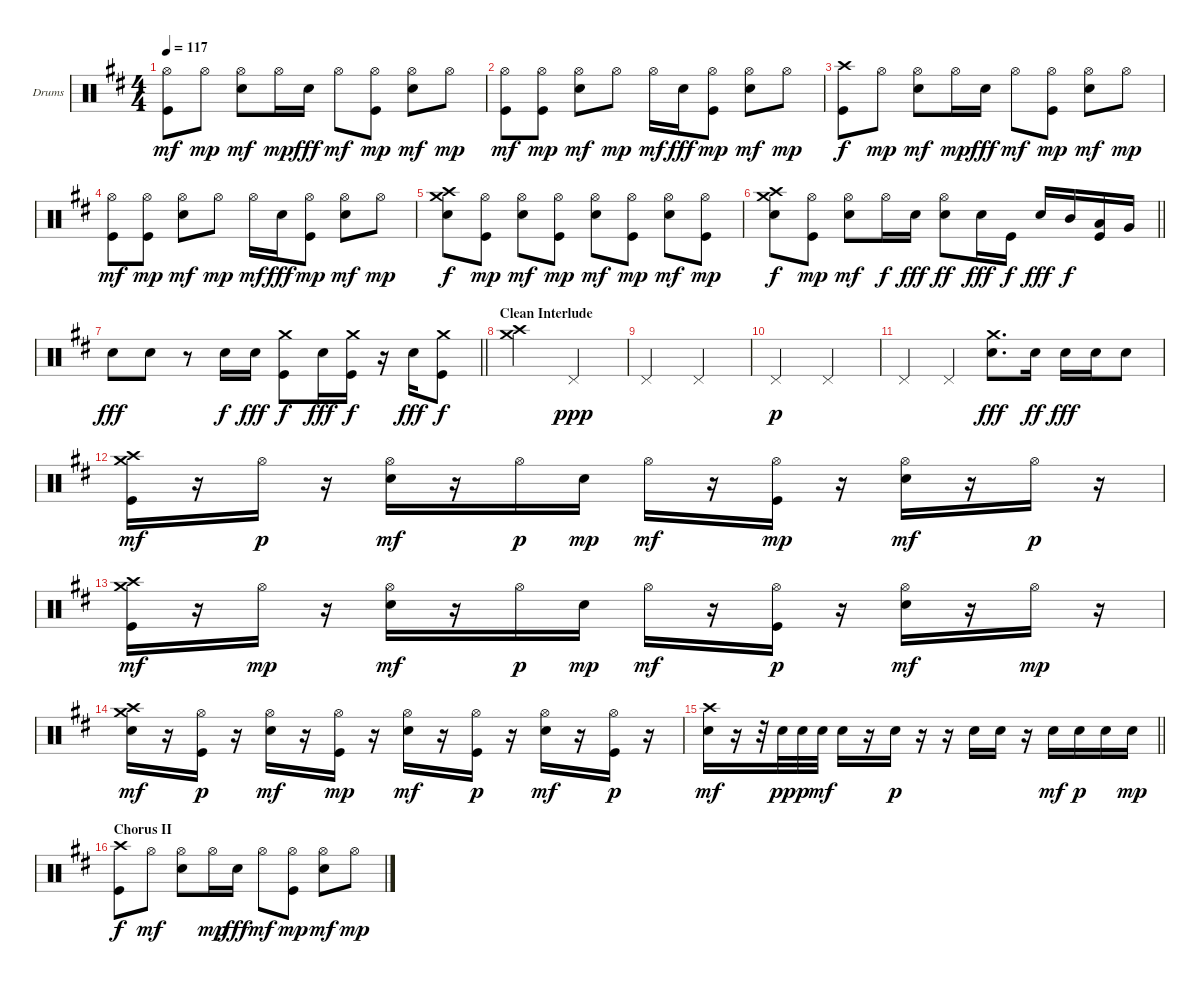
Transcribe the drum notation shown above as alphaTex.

\bracketExtendMode groupsimilarinstruments
\firstSystemTrackNameOrientation horizontal
\otherSystemsTrackNameOrientation horizontal
\track ("Drumkit" "Drums") {instrument percussion}
\staff {score}
\articulation defaults
\ts (4 4)
\tempo 117
\clef neutral
\ks d
("Hi-Hat (open)" "Kick (hit)").8{dy mf} "Hi-Hat (open)".8{dy mp} ("Hi-Hat (open)" "Snare (hit) 2").8{dy mf} "Hi-Hat (open)".16{dy mp} "Snare (hit) 2".16{dy fff} "Hi-Hat (open)".8{dy mf} ("Hi-Hat (open)" "Kick (hit)").8{dy mp} ("Hi-Hat (open)" "Snare (hit) 2").8{dy mf} "Hi-Hat (open)".8{dy mp} |
("Hi-Hat (open)" "Kick (hit)").8{dy mf} ("Hi-Hat (open)" "Kick (hit)").8{dy mp} ("Hi-Hat (open)" "Snare (hit) 2").8{dy mf} "Hi-Hat (open)".8{dy mp} "Hi-Hat (open)".16{dy mf} "Snare (hit) 2".16{dy fff} ("Hi-Hat (open)" "Kick (hit)").8{dy mp} ("Hi-Hat (open)" "Snare (hit) 2").8{dy mf} "Hi-Hat (open)".8{dy mp} |
("Crash high (hit)" "Kick (hit)").8{dy f} "Hi-Hat (open)".8{dy mp} ("Hi-Hat (open)" "Snare (hit) 2").8{dy mf} "Hi-Hat (open)".16{dy mp} "Snare (hit) 2".16{dy fff} "Hi-Hat (open)".8{dy mf} ("Hi-Hat (open)" "Kick (hit)").8{dy mp} ("Hi-Hat (open)" "Snare (hit) 2").8{dy mf} "Hi-Hat (open)".8{dy mp} |
("Hi-Hat (open)" "Kick (hit)").8{dy mf} ("Hi-Hat (open)" "Kick (hit)").8{dy mp} ("Hi-Hat (open)" "Snare (hit) 2").8{dy mf} "Hi-Hat (open)".8{dy mp} "Hi-Hat (open)".16{dy mf} "Snare (hit) 2".16{dy fff} ("Hi-Hat (open)" "Kick (hit)").8{dy mp} ("Hi-Hat (open)" "Snare (hit) 2").8{dy mf} "Hi-Hat (open)".8{dy mp} |
("Crash medium (hit)" "Crash high (hit)" "Snare (hit) 2").8{dy f} ("Hi-Hat (open)" "Kick (hit)").8{dy mp} ("Hi-Hat (open)" "Snare (hit) 2").8{dy mf} ("Hi-Hat (open)" "Kick (hit)").8{dy mp} ("Hi-Hat (open)" "Snare (hit) 2").8{dy mf} ("Hi-Hat (open)" "Kick (hit)").8{dy mp} ("Hi-Hat (open)" "Snare (hit) 2").8{dy mf} ("Hi-Hat (open)" "Kick (hit)").8{dy mp} |
\barLineRight lightlight
("Crash medium (hit)" "Crash high (hit)" "Snare (hit) 2").8{dy f} ("Hi-Hat (open)" "Kick (hit)").8{dy mp} ("Hi-Hat (open)" "Snare (hit) 2").8{dy mf} "Hi-Hat (open)".16{dy f} "Snare (hit) 2".16{dy fff} ("Hi-Hat (open)" "Snare (hit) 2").8{dy ff} "Snare (hit) 2".16{dy fff} "Kick (hit)".16{dy f} "Snare (hit) 2".16{dy fff} "Mid Tom (hit)".16{dy f} ("Kick (hit)" "Low Tom (hit)").16 "Very Low Tom (hit)".16 |
\barLineRight lightlight "Snare (hit) 2".8{dy fff} "Snare (hit) 2".8
r.8 "Snare (hit) 2".16{dy f} "Snare (hit) 2".16{dy fff} ("Crash medium (hit)" "Kick (hit)").8{dy f} "Snare (hit) 2".16{dy fff} ("Crash medium (hit)" "Kick (hit)").16{dy f} r.16 "Snare (hit) 2".16{dy fff} ("Crash medium (hit)" "Kick (hit)").8{dy f} |
\section ("" "Clean Interlude")
("Crash high (hit)" "Crash medium (hit)").2 "Pedal Hi-Hat (hit)".2{dy ppp} |
"Pedal Hi-Hat (hit)".2 "Pedal Hi-Hat (hit)".2 |
"Pedal Hi-Hat (hit)".2{dy p} "Pedal Hi-Hat (hit)".2 |
"Pedal Hi-Hat (hit)".4 "Pedal Hi-Hat (hit)".4 ("Crash medium (hit)" "Snare (hit) 2").8{d dy fff} "Snare (hit) 2".16{dy ff} "Snare (hit) 2".16{dy fff} "Snare (hit) 2".16 "Snare (hit) 2".8 |
("Crash high (hit)" "Crash medium (hit)" "Kick (hit)").16{dy mf} r.16 "Hi-Hat (open)".16{dy p} r.16 ("Hi-Hat (open)" "Snare (hit) 2").16{dy mf} r.16 "Hi-Hat (open)".16{dy p} "Snare (hit) 2".16{dy mp} "Hi-Hat (open)".16{dy mf} r.16 ("Hi-Hat (open)" "Kick (hit)").16{dy mp} r.16 ("Hi-Hat (open)" "Snare (hit) 2").16{dy mf} r.16 "Hi-Hat (open)".16{dy p} r.16 |
("Crash high (hit)" "Crash medium (hit)" "Kick (hit)").16{dy mf} r.16 "Hi-Hat (open)".16{dy mp} r.16 ("Hi-Hat (open)" "Snare (hit) 2").16{dy mf} r.16 "Hi-Hat (open)".16{dy p} "Snare (hit) 2".16{dy mp} "Hi-Hat (open)".16{dy mf} r.16 ("Hi-Hat (open)" "Kick (hit)").16{dy p} r.16 ("Hi-Hat (open)" "Snare (hit) 2").16{dy mf} r.16 "Hi-Hat (open)".16{dy mp} r.16 |
("Crash high (hit)" "Crash medium (hit)" "Snare (hit) 2").16{dy mf} r.16 ("Hi-Hat (open)" "Kick (hit)").16{dy p} r.16 ("Hi-Hat (open)" "Snare (hit) 2").16{dy mf} r.16 ("Hi-Hat (open)" "Kick (hit)").16{dy mp} r.16 ("Hi-Hat (open)" "Snare (hit) 2").16{dy mf} r.16 ("Hi-Hat (open)" "Kick (hit)").16{dy p} r.16 ("Hi-Hat (open)" "Snare (hit) 2").16{dy mf} r.16 ("Hi-Hat (open)" "Kick (hit)").16{dy p} r.16 |
\barLineRight lightlight
("Crash high (hit)" "Snare (hit) 2").16{dy mf} r.16 r.32 "Snare (hit) 2".32{dy pp} "Snare (hit) 2".32{dy p} "Snare (hit) 2".32{dy mf} "Snare (hit) 2".16 r.16 "Snare (hit) 2".16{dy p} r.16 r.16 "Snare (hit) 2".16 "Snare (hit) 2".16 r.16 "Snare (hit) 2".16{dy mf} "Snare (hit) 2".16{dy p} "Snare (hit) 2".16 "Snare (hit) 2".16{dy mp} |
\section ("" "Chorus II")
("Crash high (hit)" "Kick (hit)").8{dy f} "Hi-Hat (open)".8{dy mf} ("Hi-Hat (open)" "Snare (hit) 2").8 "Hi-Hat (open)".16{dy mp} "Snare (hit) 2".16{dy fff} "Hi-Hat (open)".8{dy mf} ("Hi-Hat (open)" "Kick (hit)").8{dy mp} ("Hi-Hat (open)" "Snare (hit) 2").8{dy mf} "Hi-Hat (open)".8{dy mp}
